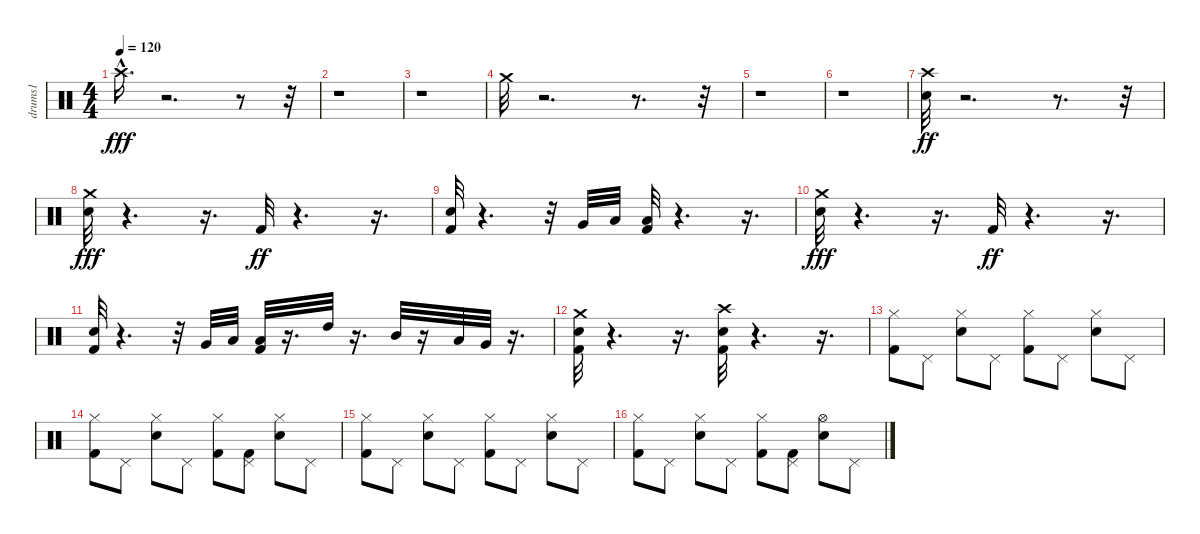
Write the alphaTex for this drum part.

\track ("drums1" "drums1") {instrument percussion}
\staff {score}
\articulation defaults
\ts (4 4)
\tempo 120
\clef neutral
\ks c "Crash high (hit)"{hac}.16{d dy fff}
r.2{d} r.8 r.32 |
r.1 |
r.1 |
"Crash medium (hit)".32 r.2{d} r.8{d} r.32 |
r.1 |
r.1 |
("Crash high (hit)" "Snare (hit) 2").32{dy ff} r.2{d} r.8{d} r.32 |
("Snare (hit) 2" "Crash medium (hit)").32{dy fff} r.4{d} r.16{d} "Kick (hit) 2".32{dy ff} r.4{d} r.16{d} |
("Snare (hit) 2" "Kick (hit) 2").32 r.4{d} r.32 "Very Low Tom (hit)".32 "Low Floor Tom (hit)".32 ("Low Floor Tom (hit)" "Kick (hit) 2").32 r.4{d} r.16{d} |
("Snare (hit) 2" "Crash medium (hit)").32{dy fff} r.4{d} r.16{d} "Kick (hit) 2".32{dy ff} r.4{d} r.16{d} |
("Snare (hit) 2" "Kick (hit) 2").32 r.4{d} r.32 "Very Low Tom (hit)".32 "Low Floor Tom (hit)".32 ("Low Floor Tom (hit)" "Kick (hit) 2").32 r.16{d} "High Tom (hit)".32 r.16{d} "Mid Tom (hit)".32 r.16 "Low Tom (hit)".32 "Very Low Tom (hit)".32 r.16{d} |
("Snare (hit) 2" "Crash medium (hit)" "Kick (hit) 2").32 r.4{d} r.16{d} ("Snare (hit) 2" "Crash high (hit)" "Kick (hit) 2").32 r.4{d} r.16{d} |
("Kick (hit) 2" "Hi-Hat (closed)").8 "Pedal Hi-Hat (hit)".8 ("Hi-Hat (closed)" "Snare (hit) 2").8 "Pedal Hi-Hat (hit)".8 ("Kick (hit) 2" "Hi-Hat (closed)").8 "Pedal Hi-Hat (hit)".8 ("Snare (hit) 2" "Hi-Hat (closed)").8 "Pedal Hi-Hat (hit)".8 |
("Hi-Hat (closed)" "Kick (hit) 2").8 "Pedal Hi-Hat (hit)".8 ("Hi-Hat (closed)" "Snare (hit) 2").8 "Pedal Hi-Hat (hit)".8 ("Kick (hit) 2" "Hi-Hat (closed)").8 ("Pedal Hi-Hat (hit)" "Kick (hit) 2").8 ("Snare (hit) 2" "Hi-Hat (closed)").8 "Pedal Hi-Hat (hit)".8 |
("Hi-Hat (closed)" "Kick (hit) 2").8 "Pedal Hi-Hat (hit)".8 ("Hi-Hat (closed)" "Snare (hit) 2").8 "Pedal Hi-Hat (hit)".8 ("Hi-Hat (closed)" "Kick (hit) 2").8 "Pedal Hi-Hat (hit)".8 ("Hi-Hat (closed)" "Snare (hit) 2").8 "Pedal Hi-Hat (hit)".8 |
("Hi-Hat (closed)" "Kick (hit) 2").8 "Pedal Hi-Hat (hit)".8 ("Snare (hit) 2" "Hi-Hat (closed)").8 "Pedal Hi-Hat (hit)".8 ("Kick (hit) 2" "Hi-Hat (closed)").8 ("Kick (hit) 2" "Pedal Hi-Hat (hit)").8 ("Snare (hit) 2" "Hi-Hat (open)").8 "Pedal Hi-Hat (hit)".8
